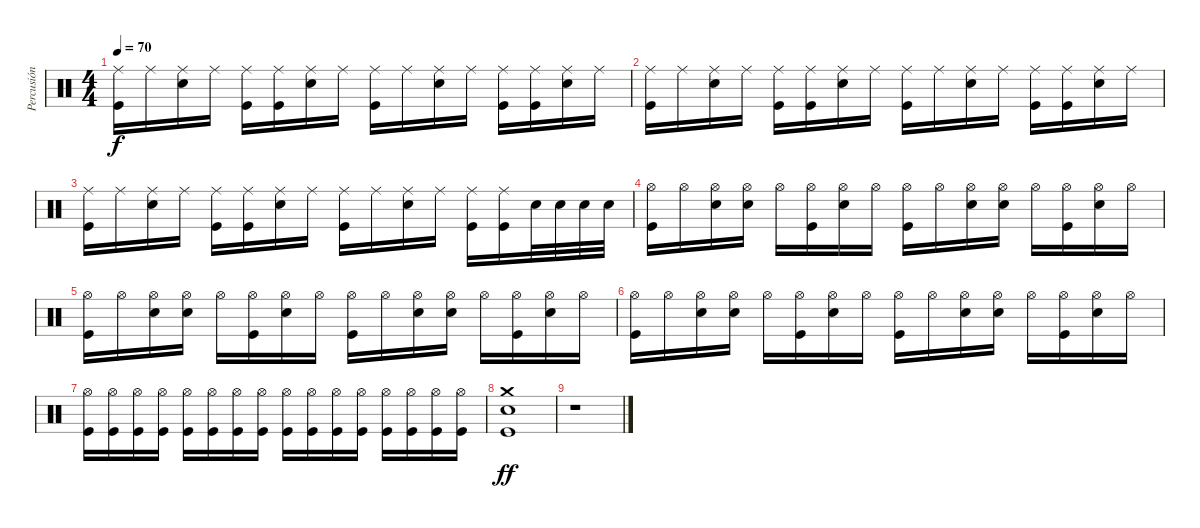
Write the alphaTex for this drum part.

\track ("Percusión" "Percusión") {instrument percussion}
\staff {score}
\articulation defaults
\ts (4 4)
\tempo 70
\clef neutral
\ks c
("Ride (middle)" "Kick (hit)").16{dy f} "Ride (middle)".16 ("Ride (middle)" "Snare (hit) 2").16 "Ride (middle)".16 ("Ride (middle)" "Kick (hit)").16 ("Ride (middle)" "Kick (hit)").16 ("Ride (middle)" "Snare (hit) 2").16 "Ride (middle)".16 ("Ride (middle)" "Kick (hit)").16 "Ride (middle)".16 ("Ride (middle)" "Snare (hit) 2").16 "Ride (middle)".16 ("Ride (middle)" "Kick (hit)").16 ("Ride (middle)" "Kick (hit)").16 ("Ride (middle)" "Snare (hit) 2").16 "Ride (middle)".16 |
("Ride (middle)" "Kick (hit)").16 "Ride (middle)".16 ("Ride (middle)" "Snare (hit) 2").16 "Ride (middle)".16 ("Ride (middle)" "Kick (hit)").16 ("Ride (middle)" "Kick (hit)").16 ("Ride (middle)" "Snare (hit) 2").16 "Ride (middle)".16 ("Ride (middle)" "Kick (hit)").16 "Ride (middle)".16 ("Ride (middle)" "Snare (hit) 2").16 "Ride (middle)".16 ("Ride (middle)" "Kick (hit)").16 ("Ride (middle)" "Kick (hit)").16 ("Ride (middle)" "Snare (hit) 2").16 "Ride (middle)".16 |
("Ride (middle)" "Kick (hit)").16 "Ride (middle)".16 ("Ride (middle)" "Snare (hit) 2").16 "Ride (middle)".16 ("Ride (middle)" "Kick (hit)").16 ("Ride (middle)" "Kick (hit)").16 ("Ride (middle)" "Snare (hit) 2").16 "Ride (middle)".16 ("Ride (middle)" "Kick (hit)").16 "Ride (middle)".16 ("Ride (middle)" "Snare (hit) 2").16 "Ride (middle)".16 ("Ride (middle)" "Kick (hit)").16 ("Ride (middle)" "Kick (hit)").16 "Snare (hit) 2".32 "Snare (hit) 2".32 "Snare (hit) 2".32 "Snare (hit) 2".32 |
("Hi-Hat (open)" "Kick (hit)").16 "Hi-Hat (open)".16 ("Hi-Hat (open)" "Snare (hit) 2").16 ("Hi-Hat (open)" "Snare (hit) 2").16 "Hi-Hat (open)".16 ("Hi-Hat (open)" "Kick (hit)").16 ("Hi-Hat (open)" "Snare (hit) 2").16 "Hi-Hat (open)".16 ("Hi-Hat (open)" "Kick (hit)").16 "Hi-Hat (open)".16 ("Hi-Hat (open)" "Snare (hit) 2").16 ("Hi-Hat (open)" "Snare (hit) 2").16 "Hi-Hat (open)".16 ("Hi-Hat (open)" "Kick (hit)").16 ("Hi-Hat (open)" "Snare (hit) 2").16 "Hi-Hat (open)".16 |
("Hi-Hat (open)" "Kick (hit)").16 "Hi-Hat (open)".16 ("Hi-Hat (open)" "Snare (hit) 2").16 ("Hi-Hat (open)" "Snare (hit) 2").16 "Hi-Hat (open)".16 ("Hi-Hat (open)" "Kick (hit)").16 ("Hi-Hat (open)" "Snare (hit) 2").16 "Hi-Hat (open)".16 ("Hi-Hat (open)" "Kick (hit)").16 "Hi-Hat (open)".16 ("Hi-Hat (open)" "Snare (hit) 2").16 ("Hi-Hat (open)" "Snare (hit) 2").16 "Hi-Hat (open)".16 ("Hi-Hat (open)" "Kick (hit)").16 ("Hi-Hat (open)" "Snare (hit) 2").16 "Hi-Hat (open)".16 |
("Hi-Hat (open)" "Kick (hit)").16 "Hi-Hat (open)".16 ("Hi-Hat (open)" "Snare (hit) 2").16 ("Hi-Hat (open)" "Snare (hit) 2").16 "Hi-Hat (open)".16 ("Hi-Hat (open)" "Kick (hit)").16 ("Hi-Hat (open)" "Snare (hit) 2").16 "Hi-Hat (open)".16 ("Hi-Hat (open)" "Kick (hit)").16 "Hi-Hat (open)".16 ("Hi-Hat (open)" "Snare (hit) 2").16 ("Hi-Hat (open)" "Snare (hit) 2").16 "Hi-Hat (open)".16 ("Hi-Hat (open)" "Kick (hit)").16 ("Hi-Hat (open)" "Snare (hit) 2").16 "Hi-Hat (open)".16 |
("Hi-Hat (open)" "Kick (hit)").16 ("Hi-Hat (open)" "Kick (hit)").16 ("Hi-Hat (open)" "Kick (hit)").16 ("Hi-Hat (open)" "Kick (hit)").16 ("Hi-Hat (open)" "Kick (hit)").16 ("Hi-Hat (open)" "Kick (hit)").16 ("Hi-Hat (open)" "Kick (hit)").16 ("Hi-Hat (open)" "Kick (hit)").16 ("Hi-Hat (open)" "Kick (hit)").16 ("Hi-Hat (open)" "Kick (hit)").16 ("Hi-Hat (open)" "Kick (hit)").16 ("Hi-Hat (open)" "Kick (hit)").16 ("Hi-Hat (open)" "Kick (hit)").16 ("Hi-Hat (open)" "Kick (hit)").16 ("Hi-Hat (open)" "Kick (hit)").16 ("Hi-Hat (open)" "Kick (hit)").16 |
("Kick (hit)" "Snare (hit) 2" "Crash medium (hit)").1{dy ff} |
r.1
